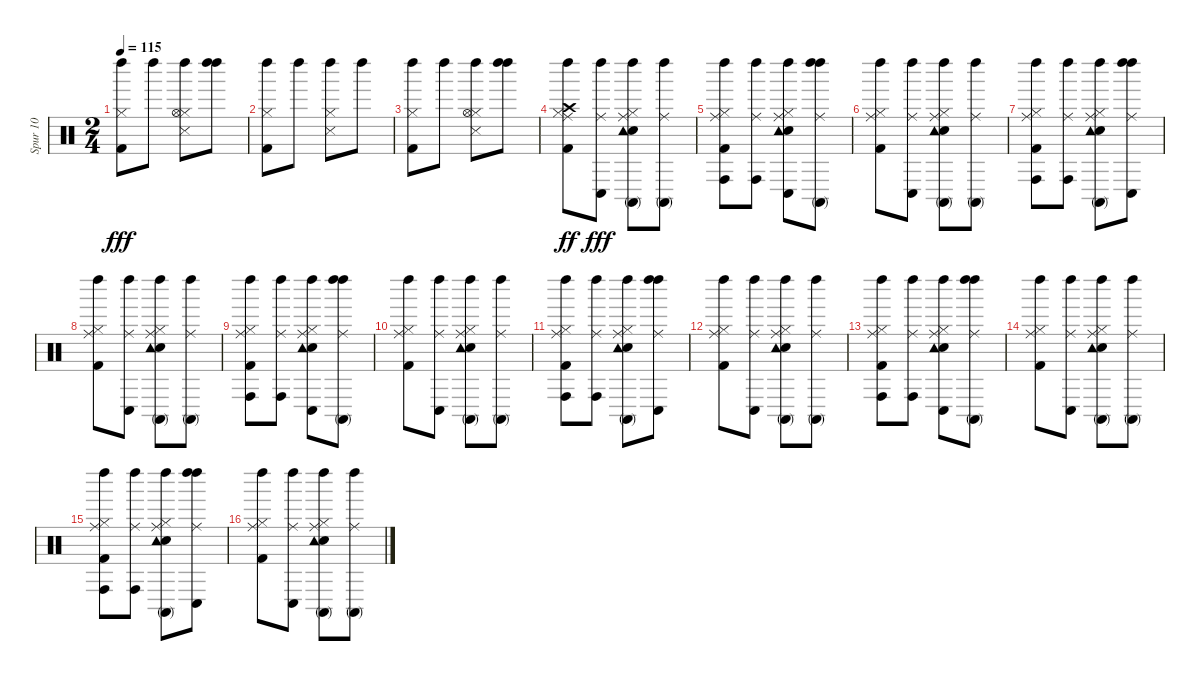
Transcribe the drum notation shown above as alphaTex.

\track ("Spur 10" "Spur 10") {instrument percussion}
\staff {score}
\articulation defaults
\ts (2 4)
\tempo 115
\clef neutral
\ks c
("Kick (hit) 2" "Hi-Hat (closed)" "Left Maraca (hit)").8{dy fff} "Left Maraca (hit)".8 ("Snare (side stick) 3" "Hi-Hat (closed)" "Hi-Hat (open)" "Left Maraca (hit)").8 ("Left Maraca (hit)" "Left Maraca (hit)").8 |
("Hi-Hat (closed)" "Kick (hit) 2" "Left Maraca (hit)").8 "Left Maraca (hit)".8 ("Hi-Hat (closed)" "Snare (side stick) 3" "Left Maraca (hit)").8 "Left Maraca (hit)".8 |
("Kick (hit) 2" "Hi-Hat (closed)" "Left Maraca (hit)").8 "Left Maraca (hit)".8 ("Hi-Hat (closed)" "Snare (side stick) 3" "Hi-Hat (open)" "Left Maraca (hit)").8 ("Left Maraca (hit)" "Left Maraca (hit)").8 |
("Left Maraca (hit)" "Hi-Hat (closed)" "Kick (hit) 2" "Ride (middle)" "Crash high (hit)").8{dy ff} ("Left Maraca (hit)" "Conga low (hit)" "Ride (middle)").8{dy fff} ("Left Maraca (hit)" "Hi-Hat (closed)" "Electric Snare (hit)" "Tambourine (hit)" "Conga high (mute)" "Ride (middle)").8 ("Left Maraca (hit)" "Conga high (mute)" "Ride (middle)").8 |
("Left Maraca (hit)" "Hi-Hat (closed)" "Kick (hit) 2" "Conga high (hit)" "Ride (middle)").8 ("Left Maraca (hit)" "Conga high (hit)" "Ride (middle)").8 ("Left Maraca (hit)" "Hi-Hat (closed)" "Electric Snare (hit)" "Tambourine (hit)" "Conga low (hit)" "Ride (middle)").8 ("Left Maraca (hit)" "Ride (middle)" "Left Maraca (hit)" "Conga high (mute)").8 |
("Left Maraca (hit)" "Hi-Hat (closed)" "Kick (hit) 2" "Ride (middle)").8 ("Left Maraca (hit)" "Conga low (hit)" "Ride (middle)").8 ("Left Maraca (hit)" "Hi-Hat (closed)" "Electric Snare (hit)" "Tambourine (hit)" "Conga high (mute)" "Ride (middle)").8 ("Ride (middle)" "Left Maraca (hit)" "Conga high (mute)").8 |
("Left Maraca (hit)" "Hi-Hat (closed)" "Kick (hit) 2" "Conga high (hit)" "Ride (middle)").8 ("Left Maraca (hit)" "Conga high (hit)" "Ride (middle)").8 ("Left Maraca (hit)" "Hi-Hat (closed)" "Electric Snare (hit)" "Tambourine (hit)" "Conga high (mute)" "Ride (middle)").8 ("Left Maraca (hit)" "Ride (middle)" "Left Maraca (hit)" "Conga low (hit)").8 |
("Left Maraca (hit)" "Hi-Hat (closed)" "Kick (hit) 2" "Ride (middle)").8 ("Left Maraca (hit)" "Conga low (hit)" "Ride (middle)").8 ("Left Maraca (hit)" "Hi-Hat (closed)" "Electric Snare (hit)" "Tambourine (hit)" "Conga high (mute)" "Ride (middle)").8 ("Left Maraca (hit)" "Conga high (mute)" "Ride (middle)").8 |
("Left Maraca (hit)" "Hi-Hat (closed)" "Kick (hit) 2" "Conga high (hit)" "Ride (middle)").8 ("Left Maraca (hit)" "Conga high (hit)" "Ride (middle)").8 ("Left Maraca (hit)" "Hi-Hat (closed)" "Electric Snare (hit)" "Tambourine (hit)" "Conga low (hit)" "Ride (middle)").8 ("Left Maraca (hit)" "Ride (middle)" "Left Maraca (hit)" "Conga high (mute)").8 |
("Left Maraca (hit)" "Hi-Hat (closed)" "Kick (hit) 2" "Ride (middle)").8 ("Left Maraca (hit)" "Conga low (hit)" "Ride (middle)").8 ("Left Maraca (hit)" "Hi-Hat (closed)" "Electric Snare (hit)" "Tambourine (hit)" "Conga high (mute)" "Ride (middle)").8 ("Ride (middle)" "Left Maraca (hit)" "Conga high (mute)").8 |
("Left Maraca (hit)" "Hi-Hat (closed)" "Kick (hit) 2" "Conga high (hit)" "Ride (middle)").8 ("Left Maraca (hit)" "Conga high (hit)" "Ride (middle)").8 ("Left Maraca (hit)" "Hi-Hat (closed)" "Electric Snare (hit)" "Tambourine (hit)" "Conga high (mute)" "Ride (middle)").8 ("Left Maraca (hit)" "Ride (middle)" "Left Maraca (hit)" "Conga low (hit)").8 |
("Left Maraca (hit)" "Hi-Hat (closed)" "Kick (hit) 2" "Ride (middle)").8 ("Left Maraca (hit)" "Conga low (hit)" "Ride (middle)").8 ("Left Maraca (hit)" "Hi-Hat (closed)" "Electric Snare (hit)" "Tambourine (hit)" "Conga high (mute)" "Ride (middle)").8 ("Left Maraca (hit)" "Conga high (mute)" "Ride (middle)").8 |
("Left Maraca (hit)" "Hi-Hat (closed)" "Kick (hit) 2" "Conga high (hit)" "Ride (middle)").8 ("Left Maraca (hit)" "Conga high (hit)" "Ride (middle)").8 ("Left Maraca (hit)" "Hi-Hat (closed)" "Electric Snare (hit)" "Tambourine (hit)" "Conga low (hit)" "Ride (middle)").8 ("Left Maraca (hit)" "Ride (middle)" "Left Maraca (hit)" "Conga high (mute)").8 |
("Left Maraca (hit)" "Hi-Hat (closed)" "Kick (hit) 2" "Ride (middle)").8 ("Left Maraca (hit)" "Conga low (hit)" "Ride (middle)").8 ("Left Maraca (hit)" "Hi-Hat (closed)" "Electric Snare (hit)" "Tambourine (hit)" "Conga high (mute)" "Ride (middle)").8 ("Ride (middle)" "Left Maraca (hit)" "Conga high (mute)").8 |
("Left Maraca (hit)" "Hi-Hat (closed)" "Kick (hit) 2" "Conga high (hit)" "Ride (middle)").8 ("Left Maraca (hit)" "Conga high (hit)" "Ride (middle)").8 ("Left Maraca (hit)" "Hi-Hat (closed)" "Electric Snare (hit)" "Tambourine (hit)" "Conga high (mute)" "Ride (middle)").8 ("Left Maraca (hit)" "Ride (middle)" "Left Maraca (hit)" "Conga low (hit)").8 |
("Left Maraca (hit)" "Hi-Hat (closed)" "Kick (hit) 2" "Ride (middle)").8 ("Left Maraca (hit)" "Conga low (hit)" "Ride (middle)").8 ("Left Maraca (hit)" "Hi-Hat (closed)" "Electric Snare (hit)" "Tambourine (hit)" "Conga high (mute)" "Ride (middle)").8 ("Left Maraca (hit)" "Conga high (mute)" "Ride (middle)").8
